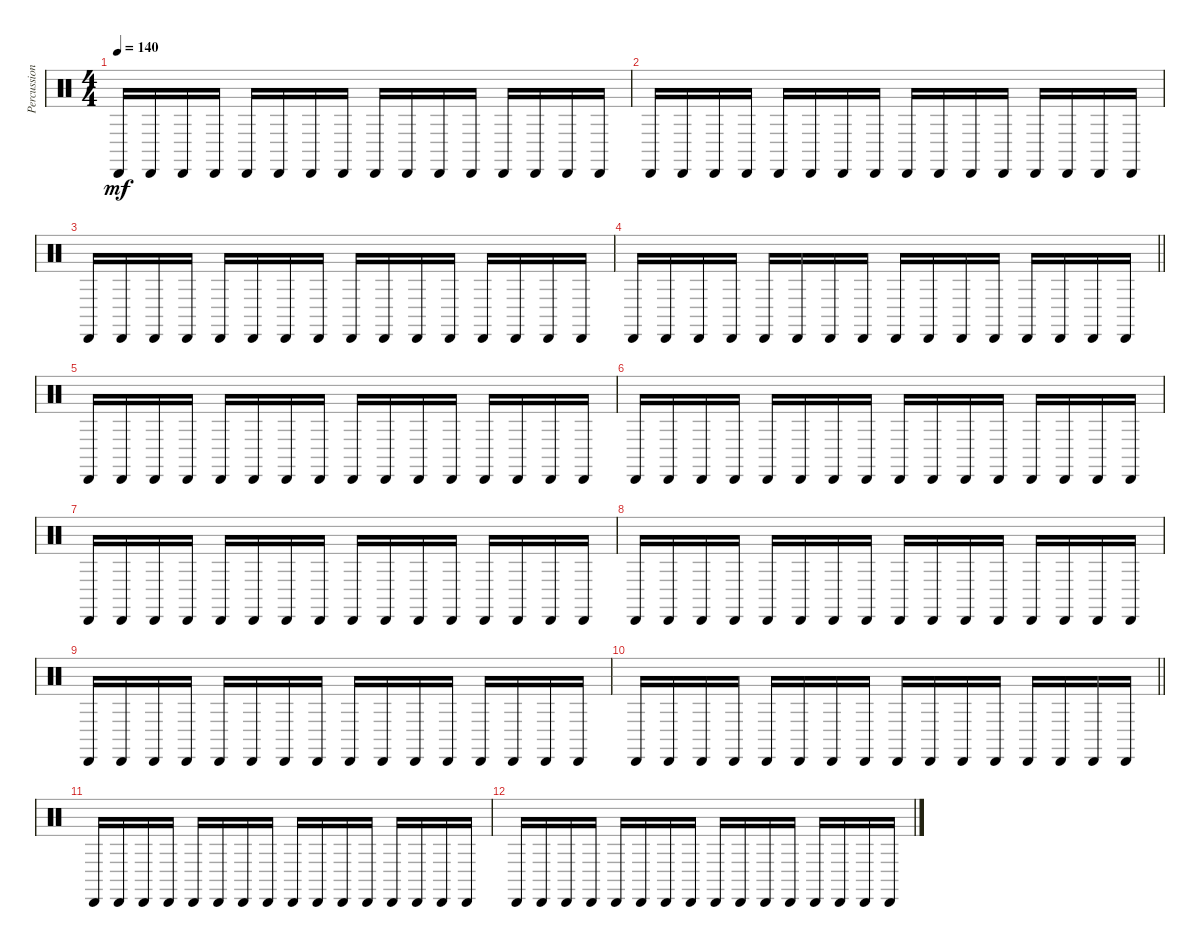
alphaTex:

\track ("Percussioni" "Percussion") {instrument percussion}
\staff {score}
\articulation defaults
\ts (4 4)
\tempo 140
\clef neutral
\ks c "Cabasa (hit)".16{dy mf} "Cabasa (hit)".16 "Cabasa (hit)".16 "Cabasa (hit)".16 "Cabasa (hit)".16 "Cabasa (hit)".16 "Cabasa (hit)".16 "Cabasa (hit)".16 "Cabasa (hit)".16 "Cabasa (hit)".16 "Cabasa (hit)".16 "Cabasa (hit)".16 "Cabasa (hit)".16 "Cabasa (hit)".16 "Cabasa (hit)".16 "Cabasa (hit)".16
|
"Cabasa (hit)".16 "Cabasa (hit)".16 "Cabasa (hit)".16 "Cabasa (hit)".16 "Cabasa (hit)".16 "Cabasa (hit)".16 "Cabasa (hit)".16 "Cabasa (hit)".16 "Cabasa (hit)".16 "Cabasa (hit)".16 "Cabasa (hit)".16 "Cabasa (hit)".16 "Cabasa (hit)".16 "Cabasa (hit)".16 "Cabasa (hit)".16 "Cabasa (hit)".16 |
"Cabasa (hit)".16 "Cabasa (hit)".16 "Cabasa (hit)".16 "Cabasa (hit)".16 "Cabasa (hit)".16 "Cabasa (hit)".16 "Cabasa (hit)".16 "Cabasa (hit)".16 "Cabasa (hit)".16 "Cabasa (hit)".16 "Cabasa (hit)".16 "Cabasa (hit)".16 "Cabasa (hit)".16 "Cabasa (hit)".16 "Cabasa (hit)".16 "Cabasa (hit)".16 |
\barLineRight lightlight "Cabasa (hit)".16 "Cabasa (hit)".16 "Cabasa (hit)".16 "Cabasa (hit)".16 "Cabasa (hit)".16 "Cabasa (hit)".16 "Cabasa (hit)".16 "Cabasa (hit)".16 "Cabasa (hit)".16 "Cabasa (hit)".16 "Cabasa (hit)".16 "Cabasa (hit)".16 "Cabasa (hit)".16 "Cabasa (hit)".16 "Cabasa (hit)".16 "Cabasa (hit)".16
|
"Cabasa (hit)".16 "Cabasa (hit)".16 "Cabasa (hit)".16 "Cabasa (hit)".16 "Cabasa (hit)".16 "Cabasa (hit)".16 "Cabasa (hit)".16 "Cabasa (hit)".16 "Cabasa (hit)".16 "Cabasa (hit)".16 "Cabasa (hit)".16 "Cabasa (hit)".16 "Cabasa (hit)".16 "Cabasa (hit)".16 "Cabasa (hit)".16 "Cabasa (hit)".16 |
"Cabasa (hit)".16 "Cabasa (hit)".16 "Cabasa (hit)".16 "Cabasa (hit)".16 "Cabasa (hit)".16 "Cabasa (hit)".16 "Cabasa (hit)".16 "Cabasa (hit)".16 "Cabasa (hit)".16 "Cabasa (hit)".16 "Cabasa (hit)".16 "Cabasa (hit)".16 "Cabasa (hit)".16 "Cabasa (hit)".16 "Cabasa (hit)".16 "Cabasa (hit)".16 |
"Cabasa (hit)".16 "Cabasa (hit)".16 "Cabasa (hit)".16 "Cabasa (hit)".16 "Cabasa (hit)".16 "Cabasa (hit)".16 "Cabasa (hit)".16 "Cabasa (hit)".16 "Cabasa (hit)".16 "Cabasa (hit)".16 "Cabasa (hit)".16 "Cabasa (hit)".16 "Cabasa (hit)".16 "Cabasa (hit)".16 "Cabasa (hit)".16 "Cabasa (hit)".16 |
"Cabasa (hit)".16 "Cabasa (hit)".16 "Cabasa (hit)".16 "Cabasa (hit)".16 "Cabasa (hit)".16 "Cabasa (hit)".16 "Cabasa (hit)".16 "Cabasa (hit)".16 "Cabasa (hit)".16 "Cabasa (hit)".16 "Cabasa (hit)".16 "Cabasa (hit)".16 "Cabasa (hit)".16 "Cabasa (hit)".16 "Cabasa (hit)".16 "Cabasa (hit)".16 |
"Cabasa (hit)".16 "Cabasa (hit)".16 "Cabasa (hit)".16 "Cabasa (hit)".16 "Cabasa (hit)".16 "Cabasa (hit)".16 "Cabasa (hit)".16 "Cabasa (hit)".16 "Cabasa (hit)".16 "Cabasa (hit)".16 "Cabasa (hit)".16 "Cabasa (hit)".16 "Cabasa (hit)".16 "Cabasa (hit)".16 "Cabasa (hit)".16 "Cabasa (hit)".16 |
\barLineRight lightlight "Cabasa (hit)".16 "Cabasa (hit)".16 "Cabasa (hit)".16 "Cabasa (hit)".16 "Cabasa (hit)".16 "Cabasa (hit)".16 "Cabasa (hit)".16 "Cabasa (hit)".16 "Cabasa (hit)".16 "Cabasa (hit)".16 "Cabasa (hit)".16 "Cabasa (hit)".16 "Cabasa (hit)".16 "Cabasa (hit)".16 "Cabasa (hit)".16 "Cabasa (hit)".16
|
"Cabasa (hit)".16 "Cabasa (hit)".16 "Cabasa (hit)".16 "Cabasa (hit)".16 "Cabasa (hit)".16 "Cabasa (hit)".16 "Cabasa (hit)".16 "Cabasa (hit)".16 "Cabasa (hit)".16 "Cabasa (hit)".16 "Cabasa (hit)".16 "Cabasa (hit)".16 "Cabasa (hit)".16 "Cabasa (hit)".16 "Cabasa (hit)".16 "Cabasa (hit)".16 |
"Cabasa (hit)".16 "Cabasa (hit)".16 "Cabasa (hit)".16 "Cabasa (hit)".16 "Cabasa (hit)".16 "Cabasa (hit)".16 "Cabasa (hit)".16 "Cabasa (hit)".16 "Cabasa (hit)".16 "Cabasa (hit)".16 "Cabasa (hit)".16 "Cabasa (hit)".16 "Cabasa (hit)".16 "Cabasa (hit)".16 "Cabasa (hit)".16 "Cabasa (hit)".16
